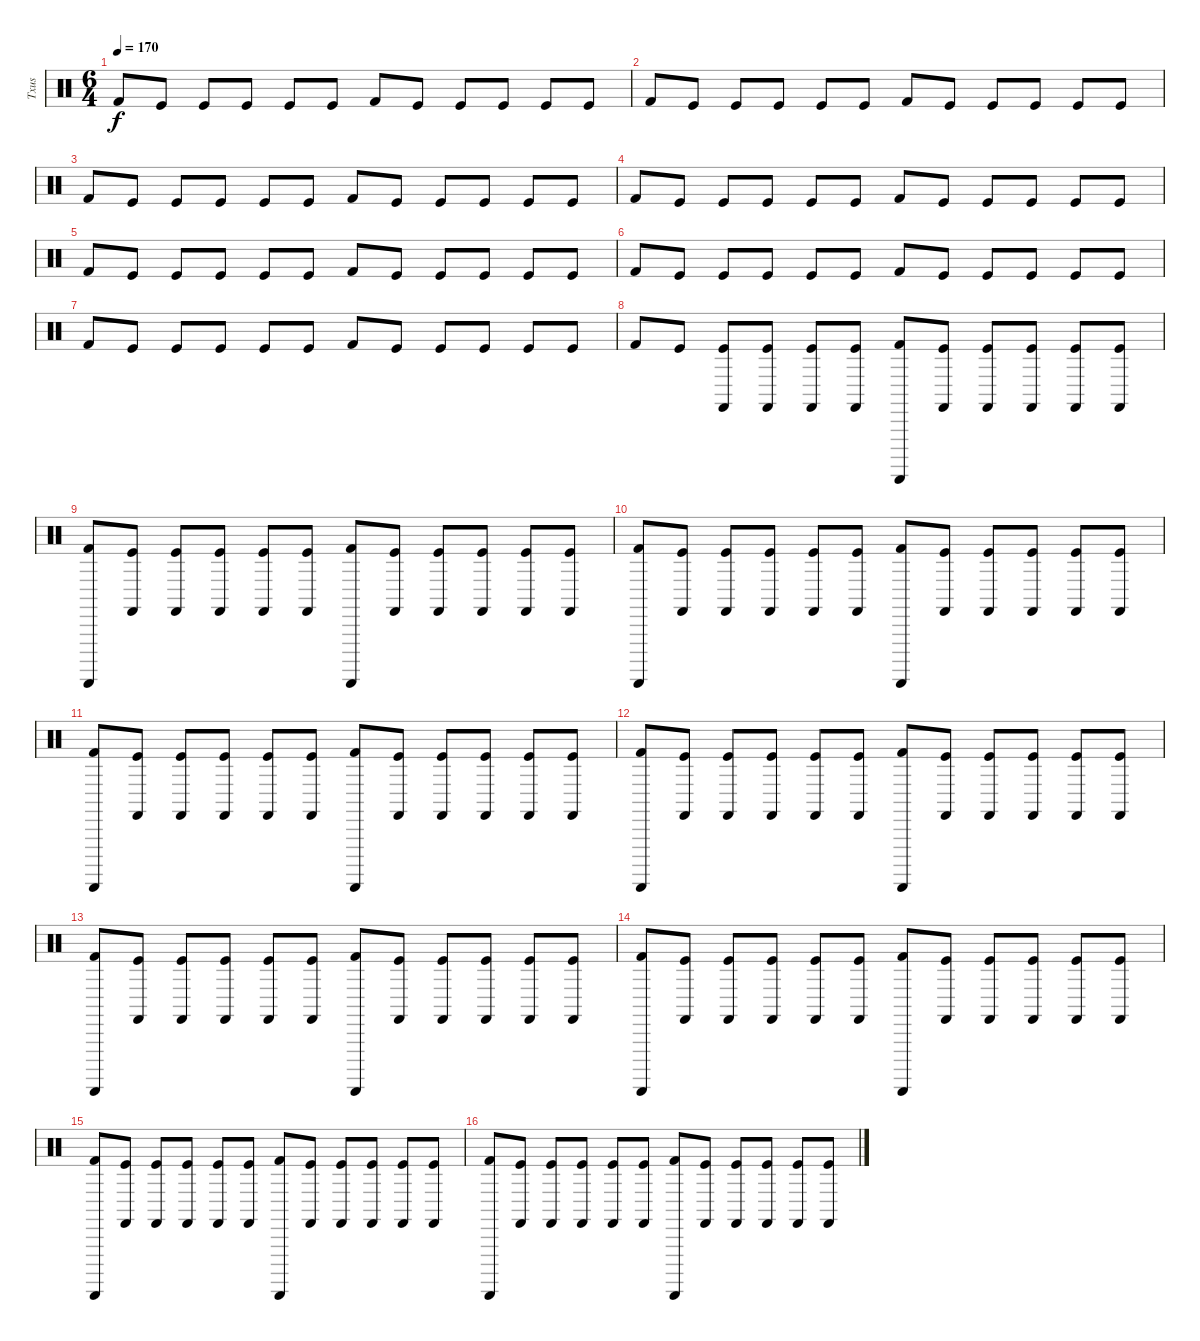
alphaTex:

\track ("Txus" "Txus") {instrument percussion}
\staff {score}
\articulation defaults
\ts (6 4)
\tempo 170
\clef neutral
\ks c "Kick (hit) 2".8{dy f} "Kick (hit)".8 "Kick (hit)".8 "Kick (hit)".8 "Kick (hit)".8 "Kick (hit)".8 "Kick (hit) 2".8 "Kick (hit)".8 "Kick (hit)".8 "Kick (hit)".8 "Kick (hit)".8 "Kick (hit)".8
|
"Kick (hit) 2".8 "Kick (hit)".8 "Kick (hit)".8 "Kick (hit)".8 "Kick (hit)".8 "Kick (hit)".8 "Kick (hit) 2".8 "Kick (hit)".8 "Kick (hit)".8 "Kick (hit)".8 "Kick (hit)".8 "Kick (hit)".8 |
"Kick (hit) 2".8 "Kick (hit)".8 "Kick (hit)".8 "Kick (hit)".8 "Kick (hit)".8 "Kick (hit)".8 "Kick (hit) 2".8 "Kick (hit)".8 "Kick (hit)".8 "Kick (hit)".8 "Kick (hit)".8 "Kick (hit)".8 |
"Kick (hit) 2".8 "Kick (hit)".8 "Kick (hit)".8 "Kick (hit)".8 "Kick (hit)".8 "Kick (hit)".8 "Kick (hit) 2".8 "Kick (hit)".8 "Kick (hit)".8 "Kick (hit)".8 "Kick (hit)".8 "Kick (hit)".8 |
"Kick (hit) 2".8 "Kick (hit)".8 "Kick (hit)".8 "Kick (hit)".8 "Kick (hit)".8 "Kick (hit)".8 "Kick (hit) 2".8 "Kick (hit)".8 "Kick (hit)".8 "Kick (hit)".8 "Kick (hit)".8 "Kick (hit)".8 |
"Kick (hit) 2".8 "Kick (hit)".8 "Kick (hit)".8 "Kick (hit)".8 "Kick (hit)".8 "Kick (hit)".8 "Kick (hit) 2".8 "Kick (hit)".8 "Kick (hit)".8 "Kick (hit)".8 "Kick (hit)".8 "Kick (hit)".8 |
"Kick (hit) 2".8 "Kick (hit)".8 "Kick (hit)".8 "Kick (hit)".8 "Kick (hit)".8 "Kick (hit)".8 "Kick (hit) 2".8 "Kick (hit)".8 "Kick (hit)".8 "Kick (hit)".8 "Kick (hit)".8 "Kick (hit)".8 |
"Kick (hit) 2".8 "Kick (hit)".8 ("Kick (hit)" "Castanets (hit)").8 ("Kick (hit)" "Castanets (hit)").8 ("Kick (hit)" "Castanets (hit)").8 ("Kick (hit)" "Castanets (hit)").8 ("Kick (hit) 2" "Guiro (scrap-return)").8 ("Kick (hit)" "Castanets (hit)").8 ("Kick (hit)" "Castanets (hit)").8 ("Kick (hit)" "Castanets (hit)").8 ("Kick (hit)" "Castanets (hit)").8 ("Kick (hit)" "Castanets (hit)").8 |
("Kick (hit) 2" "Guiro (scrap-return)").8 ("Kick (hit)" "Castanets (hit)").8 ("Kick (hit)" "Castanets (hit)").8 ("Kick (hit)" "Castanets (hit)").8 ("Kick (hit)" "Castanets (hit)").8 ("Kick (hit)" "Castanets (hit)").8 ("Kick (hit) 2" "Guiro (scrap-return)").8 ("Kick (hit)" "Castanets (hit)").8 ("Kick (hit)" "Castanets (hit)").8 ("Kick (hit)" "Castanets (hit)").8 ("Kick (hit)" "Castanets (hit)").8 ("Kick (hit)" "Castanets (hit)").8 |
("Kick (hit) 2" "Guiro (scrap-return)").8 ("Kick (hit)" "Castanets (hit)").8 ("Kick (hit)" "Castanets (hit)").8 ("Kick (hit)" "Castanets (hit)").8 ("Kick (hit)" "Castanets (hit)").8 ("Kick (hit)" "Castanets (hit)").8 ("Kick (hit) 2" "Guiro (scrap-return)").8 ("Kick (hit)" "Castanets (hit)").8 ("Kick (hit)" "Castanets (hit)").8 ("Kick (hit)" "Castanets (hit)").8 ("Kick (hit)" "Castanets (hit)").8 ("Kick (hit)" "Castanets (hit)").8 |
("Kick (hit) 2" "Guiro (scrap-return)").8 ("Kick (hit)" "Castanets (hit)").8 ("Kick (hit)" "Castanets (hit)").8 ("Kick (hit)" "Castanets (hit)").8 ("Kick (hit)" "Castanets (hit)").8 ("Kick (hit)" "Castanets (hit)").8 ("Kick (hit) 2" "Guiro (scrap-return)").8 ("Kick (hit)" "Castanets (hit)").8 ("Kick (hit)" "Castanets (hit)").8 ("Kick (hit)" "Castanets (hit)").8 ("Kick (hit)" "Castanets (hit)").8 ("Kick (hit)" "Castanets (hit)").8 |
("Kick (hit) 2" "Guiro (scrap-return)").8 ("Kick (hit)" "Castanets (hit)").8 ("Kick (hit)" "Castanets (hit)").8 ("Kick (hit)" "Castanets (hit)").8 ("Kick (hit)" "Castanets (hit)").8 ("Kick (hit)" "Castanets (hit)").8 ("Kick (hit) 2" "Guiro (scrap-return)").8 ("Kick (hit)" "Castanets (hit)").8 ("Kick (hit)" "Castanets (hit)").8 ("Kick (hit)" "Castanets (hit)").8 ("Kick (hit)" "Castanets (hit)").8 ("Kick (hit)" "Castanets (hit)").8 |
("Kick (hit) 2" "Guiro (scrap-return)").8 ("Kick (hit)" "Castanets (hit)").8 ("Kick (hit)" "Castanets (hit)").8 ("Kick (hit)" "Castanets (hit)").8 ("Kick (hit)" "Castanets (hit)").8 ("Kick (hit)" "Castanets (hit)").8 ("Kick (hit) 2" "Guiro (scrap-return)").8 ("Kick (hit)" "Castanets (hit)").8 ("Kick (hit)" "Castanets (hit)").8 ("Kick (hit)" "Castanets (hit)").8 ("Kick (hit)" "Castanets (hit)").8 ("Kick (hit)" "Castanets (hit)").8 |
("Kick (hit) 2" "Guiro (scrap-return)").8 ("Kick (hit)" "Castanets (hit)").8 ("Kick (hit)" "Castanets (hit)").8 ("Kick (hit)" "Castanets (hit)").8 ("Kick (hit)" "Castanets (hit)").8 ("Kick (hit)" "Castanets (hit)").8 ("Kick (hit) 2" "Guiro (scrap-return)").8 ("Kick (hit)" "Castanets (hit)").8 ("Kick (hit)" "Castanets (hit)").8 ("Kick (hit)" "Castanets (hit)").8 ("Kick (hit)" "Castanets (hit)").8 ("Kick (hit)" "Castanets (hit)").8 |
("Kick (hit) 2" "Guiro (scrap-return)").8 ("Kick (hit)" "Castanets (hit)").8 ("Kick (hit)" "Castanets (hit)").8 ("Kick (hit)" "Castanets (hit)").8 ("Kick (hit)" "Castanets (hit)").8 ("Kick (hit)" "Castanets (hit)").8 ("Kick (hit) 2" "Guiro (scrap-return)").8 ("Kick (hit)" "Castanets (hit)").8 ("Kick (hit)" "Castanets (hit)").8 ("Kick (hit)" "Castanets (hit)").8 ("Kick (hit)" "Castanets (hit)").8 ("Kick (hit)" "Castanets (hit)").8 |
("Kick (hit) 2" "Guiro (scrap-return)").8 ("Kick (hit)" "Castanets (hit)").8 ("Kick (hit)" "Castanets (hit)").8 ("Kick (hit)" "Castanets (hit)").8 ("Kick (hit)" "Castanets (hit)").8 ("Kick (hit)" "Castanets (hit)").8 ("Kick (hit) 2" "Guiro (scrap-return)").8 ("Kick (hit)" "Castanets (hit)").8 ("Kick (hit)" "Castanets (hit)").8 ("Kick (hit)" "Castanets (hit)").8 ("Kick (hit)" "Castanets (hit)").8 ("Kick (hit)" "Castanets (hit)").8
